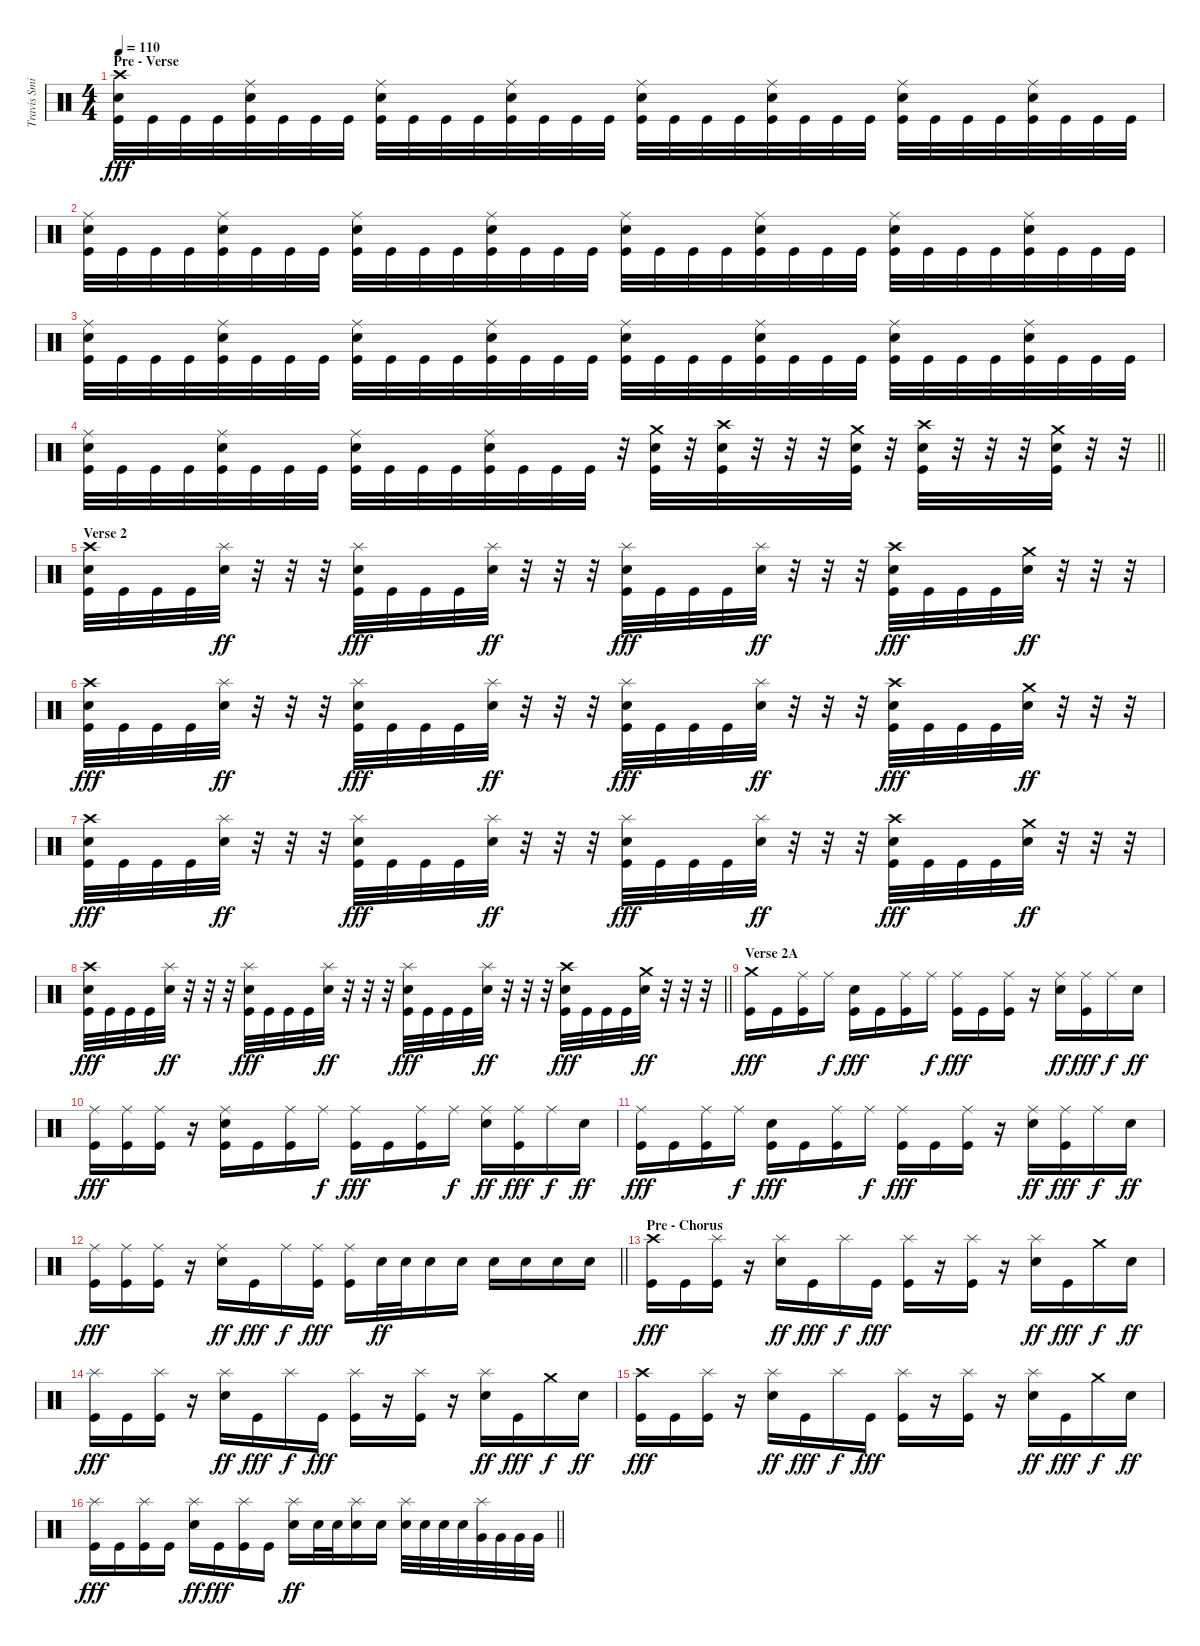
\track ("Travis Smith" "Travis Smi") {instrument percussion}
\staff {score}
\articulation defaults
\ts (4 4)
\section ("" "Pre - Verse")
\tempo 110
\clef neutral
\ks c
("Crash high (hit)" "Electric Snare (hit)" "Kick (hit)").32{dy fff} "Kick (hit)".32 "Kick (hit)".32 "Kick (hit)".32 ("Ride (middle)" "Electric Snare (hit)" "Kick (hit)").32 "Kick (hit)".32 "Kick (hit)".32 "Kick (hit)".32 ("Ride (middle)" "Electric Snare (hit)" "Kick (hit)").32 "Kick (hit)".32 "Kick (hit)".32 "Kick (hit)".32 ("Ride (middle)" "Electric Snare (hit)" "Kick (hit)").32 "Kick (hit)".32 "Kick (hit)".32 "Kick (hit)".32 ("Ride (middle)" "Electric Snare (hit)" "Kick (hit)").32 "Kick (hit)".32 "Kick (hit)".32 "Kick (hit)".32 ("Ride (middle)" "Electric Snare (hit)" "Kick (hit)").32 "Kick (hit)".32 "Kick (hit)".32 "Kick (hit)".32 ("Ride (middle)" "Electric Snare (hit)" "Kick (hit)").32 "Kick (hit)".32 "Kick (hit)".32 "Kick (hit)".32 ("Ride (middle)" "Electric Snare (hit)" "Kick (hit)").32 "Kick (hit)".32 "Kick (hit)".32 "Kick (hit)".32 |
("Ride (middle)" "Electric Snare (hit)" "Kick (hit)").32 "Kick (hit)".32 "Kick (hit)".32 "Kick (hit)".32 ("Ride (middle)" "Electric Snare (hit)" "Kick (hit)").32 "Kick (hit)".32 "Kick (hit)".32 "Kick (hit)".32 ("Ride (middle)" "Electric Snare (hit)" "Kick (hit)").32 "Kick (hit)".32 "Kick (hit)".32 "Kick (hit)".32 ("Ride (middle)" "Electric Snare (hit)" "Kick (hit)").32 "Kick (hit)".32 "Kick (hit)".32 "Kick (hit)".32 ("Ride (middle)" "Electric Snare (hit)" "Kick (hit)").32 "Kick (hit)".32 "Kick (hit)".32 "Kick (hit)".32 ("Ride (middle)" "Electric Snare (hit)" "Kick (hit)").32 "Kick (hit)".32 "Kick (hit)".32 "Kick (hit)".32 ("Ride (middle)" "Electric Snare (hit)" "Kick (hit)").32 "Kick (hit)".32 "Kick (hit)".32 "Kick (hit)".32 ("Ride (middle)" "Electric Snare (hit)" "Kick (hit)").32 "Kick (hit)".32 "Kick (hit)".32 "Kick (hit)".32 |
("Ride (middle)" "Electric Snare (hit)" "Kick (hit)").32 "Kick (hit)".32 "Kick (hit)".32 "Kick (hit)".32 ("Ride (middle)" "Electric Snare (hit)" "Kick (hit)").32 "Kick (hit)".32 "Kick (hit)".32 "Kick (hit)".32 ("Ride (middle)" "Electric Snare (hit)" "Kick (hit)").32 "Kick (hit)".32 "Kick (hit)".32 "Kick (hit)".32 ("Ride (middle)" "Electric Snare (hit)" "Kick (hit)").32 "Kick (hit)".32 "Kick (hit)".32 "Kick (hit)".32 ("Ride (middle)" "Electric Snare (hit)" "Kick (hit)").32 "Kick (hit)".32 "Kick (hit)".32 "Kick (hit)".32 ("Ride (middle)" "Electric Snare (hit)" "Kick (hit)").32 "Kick (hit)".32 "Kick (hit)".32 "Kick (hit)".32 ("Ride (middle)" "Electric Snare (hit)" "Kick (hit)").32 "Kick (hit)".32 "Kick (hit)".32 "Kick (hit)".32 ("Ride (middle)" "Electric Snare (hit)" "Kick (hit)").32 "Kick (hit)".32 "Kick (hit)".32 "Kick (hit)".32 |
\barLineRight lightlight
("Ride (middle)" "Electric Snare (hit)" "Kick (hit)").32 "Kick (hit)".32 "Kick (hit)".32 "Kick (hit)".32 ("Ride (middle)" "Electric Snare (hit)" "Kick (hit)").32 "Kick (hit)".32 "Kick (hit)".32 "Kick (hit)".32 ("Ride (middle)" "Electric Snare (hit)" "Kick (hit)").32 "Kick (hit)".32 "Kick (hit)".32 "Kick (hit)".32 ("Ride (middle)" "Electric Snare (hit)" "Kick (hit)").32 "Kick (hit)".32 "Kick (hit)".32 "Kick (hit)".32 r.32 ("Crash medium (hit)" "Electric Snare (hit)" "Kick (hit)").32 r.32 ("Crash high (hit)" "Electric Snare (hit)" "Kick (hit)").32 r.32 r.32 r.32 ("Crash medium (hit)" "Electric Snare (hit)" "Kick (hit)").32 r.32 ("Crash high (hit)" "Electric Snare (hit)" "Kick (hit)").32 r.32 r.32 r.32 ("Crash medium (hit)" "Electric Snare (hit)" "Kick (hit)").32 r.32 r.32 |
\section ("" "Verse 2")
("Crash high (hit)" "Electric Snare (hit)" "Kick (hit)").32 "Kick (hit)".32 "Kick (hit)".32 "Kick (hit)".32 ("Splash (hit)" "Electric Snare (hit)").32{dy ff} r.32 r.32 r.32 ("Splash (hit)" "Electric Snare (hit)" "Kick (hit)").32{dy fff} "Kick (hit)".32 "Kick (hit)".32 "Kick (hit)".32 ("Splash (hit)" "Electric Snare (hit)").32{dy ff} r.32 r.32 r.32 ("Splash (hit)" "Electric Snare (hit)" "Kick (hit)").32{dy fff} "Kick (hit)".32 "Kick (hit)".32 "Kick (hit)".32 ("Splash (hit)" "Electric Snare (hit)").32{dy ff} r.32 r.32 r.32 ("Crash high (hit)" "Electric Snare (hit)" "Kick (hit)").32{dy fff} "Kick (hit)".32 "Kick (hit)".32 "Kick (hit)".32 ("Crash medium (hit)" "Electric Snare (hit)").32{dy ff} r.32 r.32 r.32 |
("Crash high (hit)" "Electric Snare (hit)" "Kick (hit)").32{dy fff} "Kick (hit)".32 "Kick (hit)".32 "Kick (hit)".32 ("Splash (hit)" "Electric Snare (hit)").32{dy ff} r.32 r.32 r.32 ("Splash (hit)" "Electric Snare (hit)" "Kick (hit)").32{dy fff} "Kick (hit)".32 "Kick (hit)".32 "Kick (hit)".32 ("Splash (hit)" "Electric Snare (hit)").32{dy ff} r.32 r.32 r.32 ("Splash (hit)" "Electric Snare (hit)" "Kick (hit)").32{dy fff} "Kick (hit)".32 "Kick (hit)".32 "Kick (hit)".32 ("Splash (hit)" "Electric Snare (hit)").32{dy ff} r.32 r.32 r.32 ("Crash high (hit)" "Electric Snare (hit)" "Kick (hit)").32{dy fff} "Kick (hit)".32 "Kick (hit)".32 "Kick (hit)".32 ("Crash medium (hit)" "Electric Snare (hit)").32{dy ff} r.32 r.32 r.32 |
("Crash high (hit)" "Electric Snare (hit)" "Kick (hit)").32{dy fff} "Kick (hit)".32 "Kick (hit)".32 "Kick (hit)".32 ("Splash (hit)" "Electric Snare (hit)").32{dy ff} r.32 r.32 r.32 ("Splash (hit)" "Electric Snare (hit)" "Kick (hit)").32{dy fff} "Kick (hit)".32 "Kick (hit)".32 "Kick (hit)".32 ("Splash (hit)" "Electric Snare (hit)").32{dy ff} r.32 r.32 r.32 ("Splash (hit)" "Electric Snare (hit)" "Kick (hit)").32{dy fff} "Kick (hit)".32 "Kick (hit)".32 "Kick (hit)".32 ("Splash (hit)" "Electric Snare (hit)").32{dy ff} r.32 r.32 r.32 ("Crash high (hit)" "Electric Snare (hit)" "Kick (hit)").32{dy fff} "Kick (hit)".32 "Kick (hit)".32 "Kick (hit)".32 ("Crash medium (hit)" "Electric Snare (hit)").32{dy ff} r.32 r.32 r.32 |
\barLineRight lightlight
("Crash high (hit)" "Electric Snare (hit)" "Kick (hit)").32{dy fff} "Kick (hit)".32 "Kick (hit)".32 "Kick (hit)".32 ("Splash (hit)" "Electric Snare (hit)").32{dy ff} r.32 r.32 r.32 ("Splash (hit)" "Electric Snare (hit)" "Kick (hit)").32{dy fff} "Kick (hit)".32 "Kick (hit)".32 "Kick (hit)".32 ("Splash (hit)" "Electric Snare (hit)").32{dy ff} r.32 r.32 r.32 ("Splash (hit)" "Electric Snare (hit)" "Kick (hit)").32{dy fff} "Kick (hit)".32 "Kick (hit)".32 "Kick (hit)".32 ("Splash (hit)" "Electric Snare (hit)").32{dy ff} r.32 r.32 r.32 ("Crash high (hit)" "Electric Snare (hit)" "Kick (hit)").32{dy fff} "Kick (hit)".32 "Kick (hit)".32 "Kick (hit)".32 ("Crash medium (hit)" "Electric Snare (hit)").32{dy ff} r.32 r.32 r.32 |
\section ("" "Verse 2A")
("Crash medium (hit)" "Kick (hit)").16{dy fff} "Kick (hit)".16 ("Ride (middle)" "Kick (hit)").16 "Ride (middle)".16{dy f} ("Electric Snare (hit)" "Kick (hit)").16{dy fff} "Kick (hit)".16 ("Ride (middle)" "Kick (hit)").16 "Ride (middle)".16{dy f} ("Ride (middle)" "Kick (hit)").16{dy fff} "Kick (hit)".16 ("Ride (middle)" "Kick (hit)").16 r.16 ("Ride (middle)" "Electric Snare (hit)").16{dy ff} ("Ride (middle)" "Kick (hit)").16{dy fff} "Ride (middle)".16{dy f} "Electric Snare (hit)".16{dy ff} |
("Ride (middle)" "Kick (hit)").16{dy fff} ("Ride (middle)" "Kick (hit)").16 ("Ride (middle)" "Kick (hit)").16 r.16 ("Ride (middle)" "Electric Snare (hit)" "Kick (hit)").16 "Kick (hit)".16 ("Ride (middle)" "Kick (hit)").16 "Ride (middle)".16{dy f} ("Ride (middle)" "Kick (hit)").16{dy fff} "Kick (hit)".16 ("Ride (middle)" "Kick (hit)").16 "Ride (middle)".16{dy f} ("Ride (middle)" "Electric Snare (hit)").16{dy ff} ("Ride (middle)" "Kick (hit)").16{dy fff} "Ride (middle)".16{dy f} "Electric Snare (hit)".16{dy ff} |
("Ride (middle)" "Kick (hit)").16{dy fff} "Kick (hit)".16 ("Ride (middle)" "Kick (hit)").16 "Ride (middle)".16{dy f} ("Electric Snare (hit)" "Kick (hit)").16{dy fff} "Kick (hit)".16 ("Ride (middle)" "Kick (hit)").16 "Ride (middle)".16{dy f} ("Ride (middle)" "Kick (hit)").16{dy fff} "Kick (hit)".16 ("Ride (middle)" "Kick (hit)").16 r.16 ("Ride (middle)" "Electric Snare (hit)").16{dy ff} ("Ride (middle)" "Kick (hit)").16{dy fff} "Ride (middle)".16{dy f} "Electric Snare (hit)".16{dy ff} |
\barLineRight lightlight
("Ride (middle)" "Kick (hit)").16{dy fff} ("Ride (middle)" "Kick (hit)").16 ("Ride (middle)" "Kick (hit)").16 r.16 ("Ride (middle)" "Electric Snare (hit)").16{dy ff} "Kick (hit)".16{dy fff} "Ride (middle)".16{dy f} ("Ride (middle)" "Kick (hit)").16{dy fff} ("Ride (middle)" "Kick (hit)").16 "Electric Snare (hit)".32{dy ff} "Electric Snare (hit)".32 "Electric Snare (hit)".16 "Electric Snare (hit)".16 "Electric Snare (hit)".16 "Electric Snare (hit)".16 "Electric Snare (hit)".16 "Electric Snare (hit)".16 |
\section ("" "Pre - Chorus")
("Crash high (hit)" "Kick (hit)").16{dy fff} "Kick (hit)".16 ("Splash (hit)" "Kick (hit)").16 r.16 ("Splash (hit)" "Electric Snare (hit)").16{dy ff} "Kick (hit)".16{dy fff} "Splash (hit)".16{dy f} "Kick (hit)".16{dy fff} ("Splash (hit)" "Kick (hit)").16 r.16 ("Splash (hit)" "Kick (hit)").16 r.16 ("Splash (hit)" "Electric Snare (hit)").16{dy ff} "Kick (hit)".16{dy fff} "Crash medium (hit)".16{dy f} "Electric Snare (hit)".16{dy ff} |
("Splash (hit)" "Kick (hit)").16{dy fff} "Kick (hit)".16 ("Splash (hit)" "Kick (hit)").16 r.16 ("Splash (hit)" "Electric Snare (hit)").16{dy ff} "Kick (hit)".16{dy fff} "Splash (hit)".16{dy f} "Kick (hit)".16{dy fff} ("Splash (hit)" "Kick (hit)").16 r.16 ("Splash (hit)" "Kick (hit)").16 r.16 ("Splash (hit)" "Electric Snare (hit)").16{dy ff} "Kick (hit)".16{dy fff} "Crash medium (hit)".16{dy f} "Electric Snare (hit)".16{dy ff} |
("Crash high (hit)" "Kick (hit)").16{dy fff} "Kick (hit)".16 ("Splash (hit)" "Kick (hit)").16 r.16 ("Splash (hit)" "Electric Snare (hit)").16{dy ff} "Kick (hit)".16{dy fff} "Splash (hit)".16{dy f} "Kick (hit)".16{dy fff} ("Splash (hit)" "Kick (hit)").16 r.16 ("Splash (hit)" "Kick (hit)").16 r.16 ("Splash (hit)" "Electric Snare (hit)").16{dy ff} "Kick (hit)".16{dy fff} "Crash medium (hit)".16{dy f} "Electric Snare (hit)".16{dy ff} |
\barLineRight lightlight
("Splash (hit)" "Kick (hit)").16{dy fff} "Kick (hit)".16 ("Splash (hit)" "Kick (hit)").16 "Kick (hit)".16 ("Splash (hit)" "Electric Snare (hit)").16{dy ff} "Kick (hit)".16{dy fff} ("Splash (hit)" "Kick (hit)").16 "Kick (hit)".16 ("Splash (hit)" "Electric Snare (hit)").16{dy ff} "Electric Snare (hit)".32 "Electric Snare (hit)".32 ("Splash (hit)" "Electric Snare (hit)").16 "Electric Snare (hit)".16 ("Splash (hit)" "Electric Snare (hit)").32 "Electric Snare (hit)".32 "Electric Snare (hit)".32 "Electric Snare (hit)".32 ("Splash (hit)" "Very Low Tom (hit)").32 "Very Low Tom (hit)".32 "Very Low Tom (hit)".32 "Very Low Tom (hit)".32
